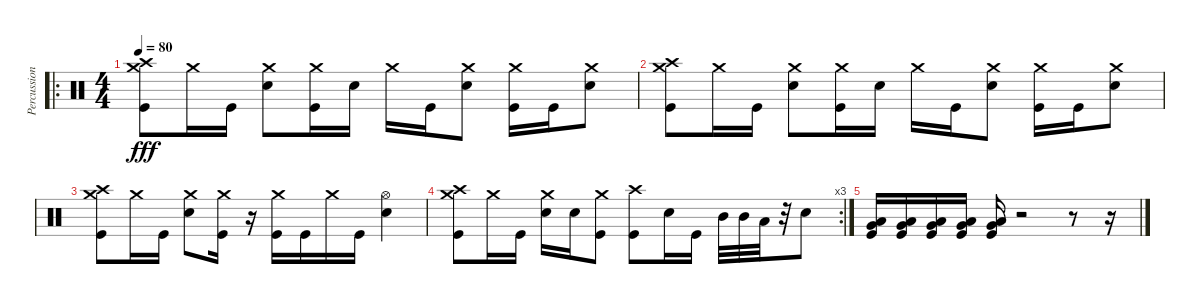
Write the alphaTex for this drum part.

\track ("Percussion" "Percussion") {instrument percussion}
\staff {score}
\articulation defaults
\ro
\ts (4 4)
\tempo 80
\clef neutral
\ks c
("Crash medium (hit)" "Crash high (hit)" "Kick (hit)").8{dy fff} "Crash medium (hit)".16 "Kick (hit)".16 ("Crash medium (hit)" "Electric Snare (hit)").8 ("Crash medium (hit)" "Kick (hit)").16 "Electric Snare (hit)".16 "Crash medium (hit)".16 "Kick (hit)".16 ("Crash medium (hit)" "Electric Snare (hit)").8 ("Crash medium (hit)" "Kick (hit)").16 "Kick (hit)".16 ("Crash medium (hit)" "Electric Snare (hit)").8 |
("Crash medium (hit)" "Crash high (hit)" "Kick (hit)").8 "Crash medium (hit)".16 "Kick (hit)".16 ("Crash medium (hit)" "Electric Snare (hit)").8 ("Crash medium (hit)" "Kick (hit)").16 "Electric Snare (hit)".16 "Crash medium (hit)".16 "Kick (hit)".16 ("Crash medium (hit)" "Electric Snare (hit)").8 ("Crash medium (hit)" "Kick (hit)").16 "Kick (hit)".16 ("Crash medium (hit)" "Electric Snare (hit)").8 |
("Crash medium (hit)" "Crash high (hit)" "Kick (hit)").8 "Crash medium (hit)".16 "Kick (hit)".16 ("Crash medium (hit)" "Electric Snare (hit)").8 ("Crash medium (hit)" "Kick (hit)").16 r.16 ("Crash medium (hit)" "Kick (hit)").16 "Kick (hit)".16 "Crash medium (hit)".16 "Kick (hit)".16 ("Hi-Hat (open)" "Electric Snare (hit)").4 |
\rc 3
("Crash medium (hit)" "Crash high (hit)" "Kick (hit)").8 "Crash medium (hit)".16 "Kick (hit)".16 ("Crash medium (hit)" "Electric Snare (hit)").16 "Electric Snare (hit)".16 ("Crash medium (hit)" "Kick (hit)").8 ("Crash high (hit)" "Kick (hit)").8 "Electric Snare (hit)".16 "Kick (hit)".16 "Mid Tom (hit)".32 "Mid Tom (hit)".32 "Low Tom (hit)".32 r.32 "Electric Snare (hit)".8 |
("Very Low Tom (hit)" "Low Floor Tom (hit)" "Kick (hit)").16 ("Very Low Tom (hit)" "Low Floor Tom (hit)" "Kick (hit)").16 ("Very Low Tom (hit)" "Low Floor Tom (hit)" "Kick (hit)").16 ("Very Low Tom (hit)" "Low Floor Tom (hit)" "Kick (hit)").16 ("Very Low Tom (hit)" "Low Floor Tom (hit)" "Kick (hit)").16 r.2 r.8 r.16
